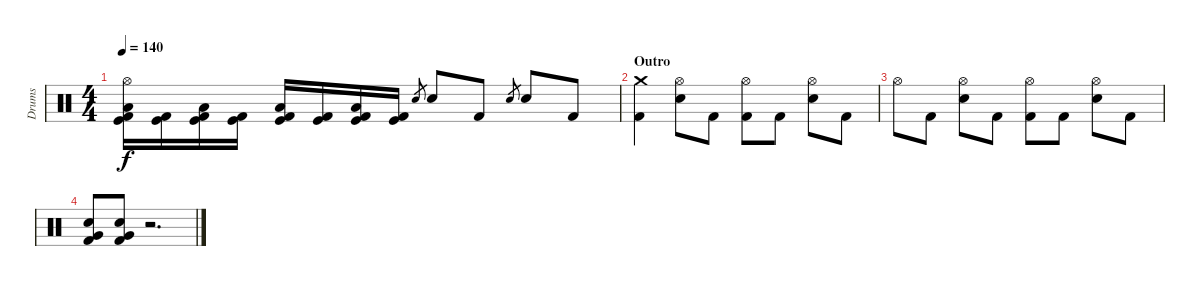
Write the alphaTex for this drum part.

\track ("Drums" "Drums") {instrument percussion}
\staff {score}
\articulation defaults
\ts (4 4)
\tempo 140
\clef neutral
\ks c
("Hi-Hat (open)" "Kick (hit) 2" "Kick (hit)" "Low Tom (hit)").16{dy f} ("Kick (hit) 2" "Kick (hit)").16 ("Kick (hit) 2" "Kick (hit)" "Low Tom (hit)").16 ("Kick (hit) 2" "Kick (hit)").16 ("Kick (hit) 2" "Kick (hit)" "Low Tom (hit)").16 ("Kick (hit) 2" "Kick (hit)").16 ("Kick (hit) 2" "Kick (hit)" "Low Tom (hit)").16 ("Kick (hit) 2" "Kick (hit)").16 "Electric Snare (hit)".8{gr} "Electric Snare (hit)".8 "Kick (hit) 2".8 "Electric Snare (hit)".8{gr} "Electric Snare (hit)".8 "Kick (hit) 2".8 |
\section ("" "Outro")
("Crash medium (hit)" "Kick (hit) 2").4 ("Hi-Hat (open)" "Electric Snare (hit)").8 "Kick (hit) 2".8 ("Hi-Hat (open)" "Kick (hit) 2").8 "Kick (hit) 2".8 ("Hi-Hat (open)" "Electric Snare (hit)").8 "Kick (hit) 2".8 |
"Hi-Hat (open)".8 "Kick (hit) 2".8 ("Hi-Hat (open)" "Electric Snare (hit)").8 "Kick (hit) 2".8 ("Hi-Hat (open)" "Kick (hit) 2").8 "Kick (hit) 2".8 ("Hi-Hat (open)" "Electric Snare (hit)").8 "Kick (hit) 2".8 |
("Electric Snare (hit)" "Very Low Tom (hit)" "Kick (hit) 2").8 ("Electric Snare (hit)" "Very Low Tom (hit)" "Kick (hit) 2").8 r.2{d}
